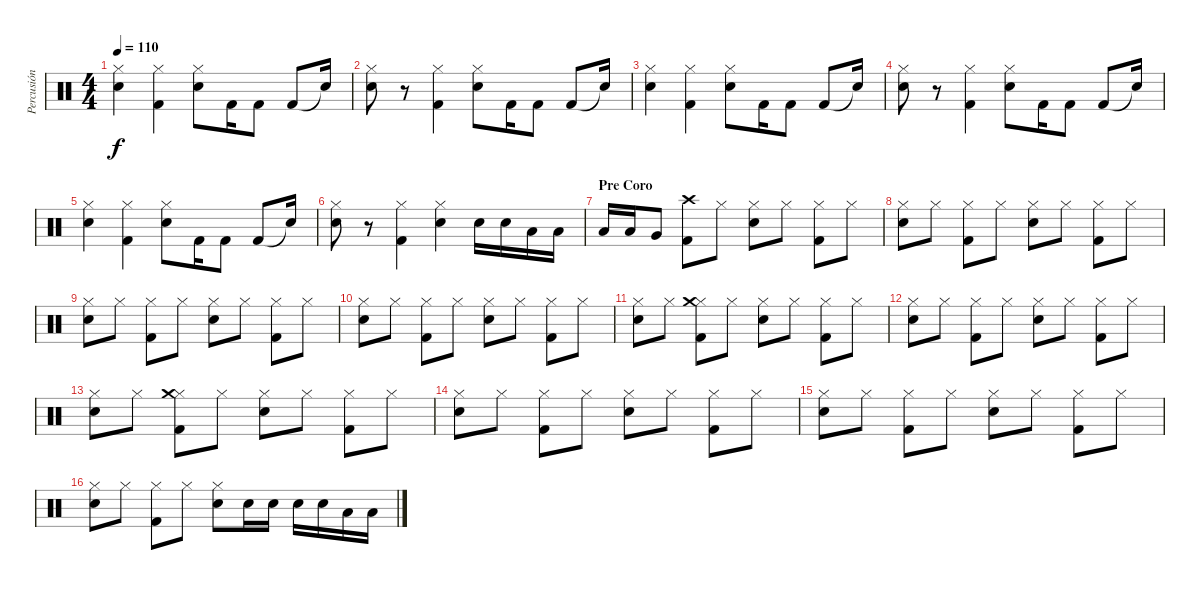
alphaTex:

\track ("Percusión" "Percusión") {instrument percussion}
\staff {score}
\articulation defaults
\ts (4 4)
\tempo 110
\clef neutral
\ks c
("Hi-Hat (closed)" "Electric Snare (hit)").4{dy f} ("Hi-Hat (closed)" "Kick (hit) 2").4 ("Hi-Hat (closed)" "Electric Snare (hit)").8 "Kick (hit) 2".16 "Kick (hit) 2".8 "Kick (hit) 2".8 "Snare (hit)"{t}.16 |
("Hi-Hat (closed)" "Electric Snare (hit)").8 r.8 ("Hi-Hat (closed)" "Kick (hit) 2").4 ("Hi-Hat (closed)" "Electric Snare (hit)").8 "Kick (hit) 2".16 "Kick (hit) 2".8 "Kick (hit) 2".8 "Snare (hit)"{t}.16 |
("Hi-Hat (closed)" "Electric Snare (hit)").4 ("Hi-Hat (closed)" "Kick (hit) 2").4 ("Hi-Hat (closed)" "Electric Snare (hit)").8 "Kick (hit) 2".16 "Kick (hit) 2".8 "Kick (hit) 2".8 "Snare (hit)"{t}.16 |
("Hi-Hat (closed)" "Electric Snare (hit)").8 r.8 ("Hi-Hat (closed)" "Kick (hit) 2").4 ("Hi-Hat (closed)" "Electric Snare (hit)").8 "Kick (hit) 2".16 "Kick (hit) 2".8 "Kick (hit) 2".8 "Snare (hit)"{t}.16 |
("Hi-Hat (closed)" "Electric Snare (hit)").4 ("Hi-Hat (closed)" "Kick (hit) 2").4 ("Hi-Hat (closed)" "Electric Snare (hit)").8 "Kick (hit) 2".16 "Kick (hit) 2".8 "Kick (hit) 2".8 "Snare (hit)"{t}.16 |
("Hi-Hat (closed)" "Electric Snare (hit)").8 r.8 ("Hi-Hat (closed)" "Kick (hit) 2").4 ("Hi-Hat (closed)" "Electric Snare (hit)").4 "Electric Snare (hit)".16 "Electric Snare (hit)".16 "Low Tom (hit)".16 "Low Tom (hit)".16 |
\section ("" "Pre Coro")
"Low Tom (hit)".16 "Low Tom (hit)".16 "Very Low Tom (hit)".8 ("Crash high (hit)" "Kick (hit) 2").8 "Hi-Hat (closed)".8 ("Hi-Hat (closed)" "Electric Snare (hit)").8 "Hi-Hat (closed)".8 ("Hi-Hat (closed)" "Kick (hit) 2").8 "Hi-Hat (closed)".8 |
("Hi-Hat (closed)" "Electric Snare (hit)").8 "Hi-Hat (closed)".8 ("Hi-Hat (closed)" "Kick (hit) 2").8 "Hi-Hat (closed)".8 ("Hi-Hat (closed)" "Electric Snare (hit)").8 "Hi-Hat (closed)".8 ("Hi-Hat (closed)" "Kick (hit) 2").8 "Hi-Hat (closed)".8 |
("Hi-Hat (closed)" "Electric Snare (hit)").8 "Hi-Hat (closed)".8 ("Hi-Hat (closed)" "Kick (hit) 2").8 "Hi-Hat (closed)".8 ("Hi-Hat (closed)" "Electric Snare (hit)").8 "Hi-Hat (closed)".8 ("Hi-Hat (closed)" "Kick (hit) 2").8 "Hi-Hat (closed)".8 |
("Hi-Hat (closed)" "Electric Snare (hit)").8 "Hi-Hat (closed)".8 ("Hi-Hat (closed)" "Kick (hit) 2").8 "Hi-Hat (closed)".8 ("Hi-Hat (closed)" "Electric Snare (hit)").8 "Hi-Hat (closed)".8 ("Hi-Hat (closed)" "Kick (hit) 2").8 "Hi-Hat (closed)".8 |
("Hi-Hat (closed)" "Electric Snare (hit)").8 "Hi-Hat (closed)".8 ("Hi-Hat (closed)" "Kick (hit) 2" "Crash medium (hit)").8 "Hi-Hat (closed)".8 ("Hi-Hat (closed)" "Electric Snare (hit)").8 "Hi-Hat (closed)".8 ("Hi-Hat (closed)" "Kick (hit) 2").8 "Hi-Hat (closed)".8 |
("Hi-Hat (closed)" "Electric Snare (hit)").8 "Hi-Hat (closed)".8 ("Hi-Hat (closed)" "Kick (hit) 2").8 "Hi-Hat (closed)".8 ("Hi-Hat (closed)" "Electric Snare (hit)").8 "Hi-Hat (closed)".8 ("Hi-Hat (closed)" "Kick (hit) 2").8 "Hi-Hat (closed)".8 |
("Hi-Hat (closed)" "Electric Snare (hit)").8 "Hi-Hat (closed)".8 ("Hi-Hat (closed)" "Kick (hit) 2" "Crash medium (hit)").8 "Hi-Hat (closed)".8 ("Hi-Hat (closed)" "Electric Snare (hit)").8 "Hi-Hat (closed)".8 ("Hi-Hat (closed)" "Kick (hit) 2").8 "Hi-Hat (closed)".8 |
("Hi-Hat (closed)" "Electric Snare (hit)").8 "Hi-Hat (closed)".8 ("Hi-Hat (closed)" "Kick (hit) 2").8 "Hi-Hat (closed)".8 ("Hi-Hat (closed)" "Electric Snare (hit)").8 "Hi-Hat (closed)".8 ("Hi-Hat (closed)" "Kick (hit) 2").8 "Hi-Hat (closed)".8 |
("Hi-Hat (closed)" "Electric Snare (hit)").8 "Hi-Hat (closed)".8 ("Hi-Hat (closed)" "Kick (hit) 2").8 "Hi-Hat (closed)".8 ("Hi-Hat (closed)" "Electric Snare (hit)").8 "Hi-Hat (closed)".8 ("Hi-Hat (closed)" "Kick (hit) 2").8 "Hi-Hat (closed)".8 |
("Hi-Hat (closed)" "Electric Snare (hit)").8 "Hi-Hat (closed)".8 ("Hi-Hat (closed)" "Kick (hit) 2").8 "Hi-Hat (closed)".8 ("Hi-Hat (closed)" "Electric Snare (hit)").8 "Electric Snare (hit)".16 "Electric Snare (hit)".16 "Electric Snare (hit)".16 "Electric Snare (hit)".16 "Low Tom (hit)".16 "Low Tom (hit)".16
